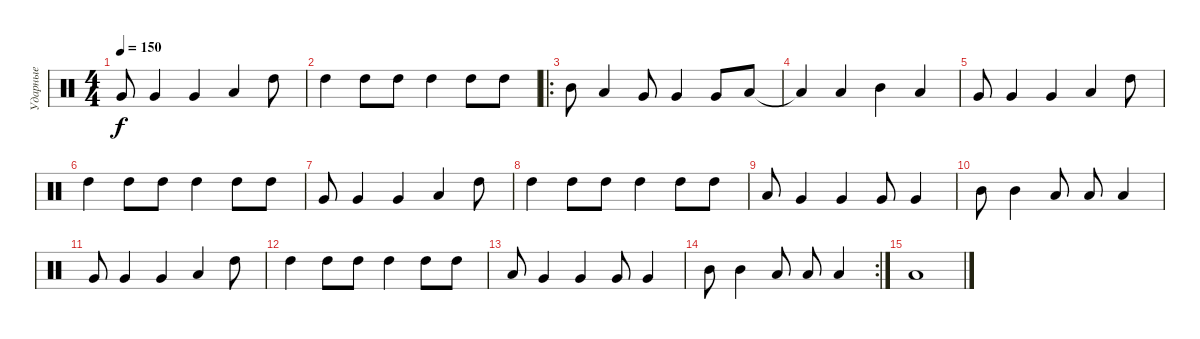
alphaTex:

\track ("Ударные" "Ударные") {instrument percussion}
\staff {score}
\articulation defaults
\ts (4 4)
\tempo 150
\clef neutral
\ks c "Very Low Tom (hit)".8{dy f} "Very Low Tom (hit)".4 "Very Low Tom (hit)".4 "Low Floor Tom (hit)".4 "High Tom (hit)".8
|
"High Tom (hit)".4 "High Tom (hit)".8 "High Tom (hit)".8 "High Tom (hit)".4 "High Tom (hit)".8 "High Tom (hit)".8 |
\ro "Mid Tom (hit)".8 "Low Tom (hit)".4 "Very Low Tom (hit)".8 "Very Low Tom (hit)".4 "Very Low Tom (hit)".8 "Low Floor Tom (hit)".8
|
"Low Floor Tom (hit)"{t}.4 "Low Tom (hit)".4 "Mid Tom (hit)".4 "Low Tom (hit)".4 |
"Very Low Tom (hit)".8 "Very Low Tom (hit)".4 "Very Low Tom (hit)".4 "Low Floor Tom (hit)".4 "High Tom (hit)".8 |
"High Tom (hit)".4 "High Tom (hit)".8 "High Tom (hit)".8 "High Tom (hit)".4 "High Tom (hit)".8 "High Tom (hit)".8 |
"Very Low Tom (hit)".8 "Very Low Tom (hit)".4 "Very Low Tom (hit)".4 "Low Floor Tom (hit)".4 "High Tom (hit)".8 |
"High Tom (hit)".4 "High Tom (hit)".8 "High Tom (hit)".8 "High Tom (hit)".4 "High Tom (hit)".8 "High Tom (hit)".8 |
"Low Tom (hit)".8 "Very Low Tom (hit)".4 "Very Low Tom (hit)".4 "Very Low Tom (hit)".8 "Very Low Tom (hit)".4 |
"Mid Tom (hit)".8 "Mid Tom (hit)".4 "Low Tom (hit)".8 "Low Tom (hit)".8 "Low Floor Tom (hit)".4 |
"Very Low Tom (hit)".8 "Very Low Tom (hit)".4 "Very Low Tom (hit)".4 "Low Floor Tom (hit)".4 "High Tom (hit)".8 |
"High Tom (hit)".4 "High Tom (hit)".8 "High Tom (hit)".8 "High Tom (hit)".4 "High Tom (hit)".8 "High Tom (hit)".8 |
"Low Tom (hit)".8 "Very Low Tom (hit)".4 "Very Low Tom (hit)".4 "Very Low Tom (hit)".8 "Very Low Tom (hit)".4 |
\rc 2 "Mid Tom (hit)".8 "Mid Tom (hit)".4 "Low Tom (hit)".8 "Low Tom (hit)".8 "Low Floor Tom (hit)".4
|
"Low Floor Tom (hit)".1
